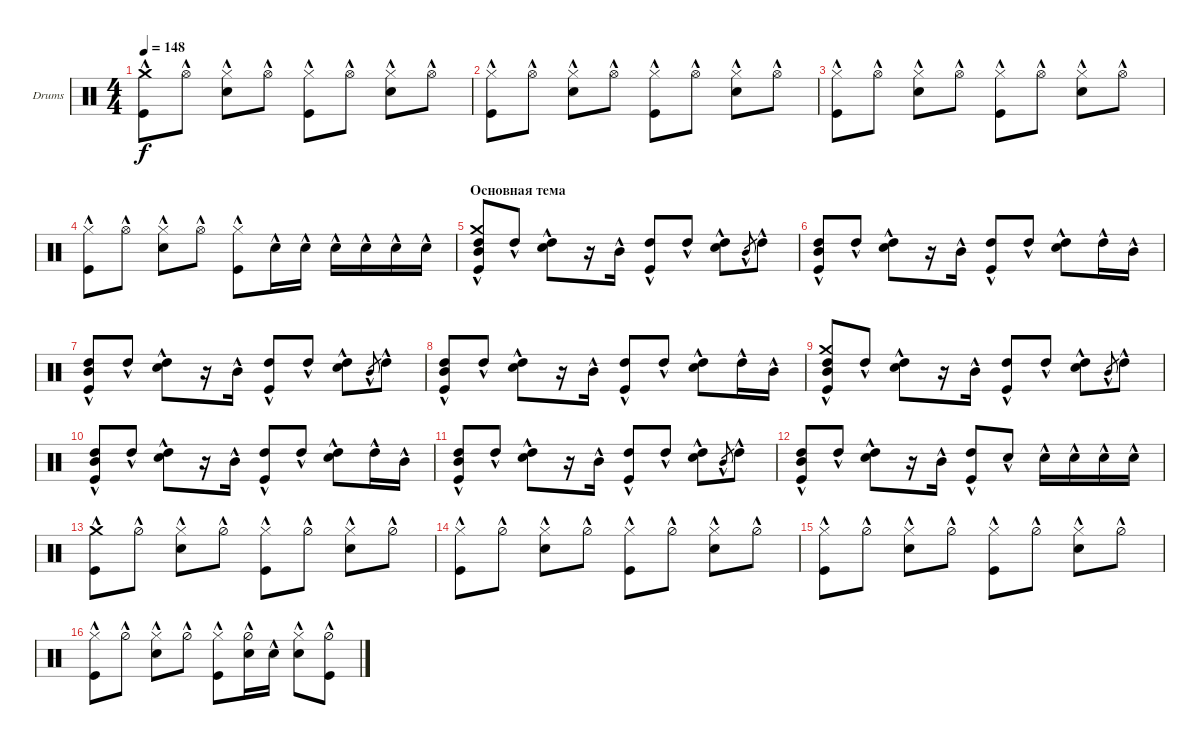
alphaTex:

\bracketExtendMode groupsimilarinstruments
\firstSystemTrackNameOrientation horizontal
\otherSystemsTrackNameOrientation horizontal
\track ("Drumkit" "Drums") {instrument percussion}
\staff {score}
\articulation defaults
\ts (4 4)
\tempo 148
\clef neutral
\ks c
("Kick (hit)"{hac} "Crash medium (hit)"{hac}).8{dy f} "Hi-Hat (open)"{hac}.8 ("Snare (hit) 2"{hac} "Hi-Hat (closed)"{hac}).8 "Hi-Hat (open)"{hac}.8 ("Kick (hit)"{hac} "Hi-Hat (closed)"{hac}).8 "Hi-Hat (open)"{hac}.8 ("Snare (hit) 2"{hac} "Hi-Hat (closed)"{hac}).8 "Hi-Hat (open)"{hac}.8 |
("Kick (hit)"{hac} "Hi-Hat (closed)"{hac}).8 "Hi-Hat (open)"{hac}.8 ("Snare (hit) 2"{hac} "Hi-Hat (closed)"{hac}).8 "Hi-Hat (open)"{hac}.8 ("Kick (hit)"{hac} "Hi-Hat (closed)"{hac}).8 "Hi-Hat (open)"{hac}.8 ("Snare (hit) 2"{hac} "Hi-Hat (closed)"{hac}).8 "Hi-Hat (open)"{hac}.8 |
("Kick (hit)"{hac} "Hi-Hat (closed)"{hac}).8 "Hi-Hat (open)"{hac}.8 ("Snare (hit) 2"{hac} "Hi-Hat (closed)"{hac}).8 "Hi-Hat (open)"{hac}.8 ("Kick (hit)"{hac} "Hi-Hat (closed)"{hac}).8 "Hi-Hat (open)"{hac}.8 ("Snare (hit) 2"{hac} "Hi-Hat (closed)"{hac}).8 "Hi-Hat (open)"{hac}.8 |
("Kick (hit)"{hac} "Hi-Hat (closed)"{hac}).8 "Hi-Hat (open)"{hac}.8 ("Snare (hit) 2"{hac} "Hi-Hat (closed)"{hac}).8 "Hi-Hat (open)"{hac}.8 ("Kick (hit)"{hac} "Hi-Hat (closed)"{hac}).8 "Snare (hit) 2"{hac}.16 "Snare (hit) 2"{hac}.16 "Snare (hit) 2"{hac}.16 "Snare (hit) 2"{hac}.16 "Snare (hit) 2"{hac}.16 "Snare (hit) 2"{hac}.16 |
\section ("" "Основная тема")
("Kick (hit)"{hac} "High Tom (hit)"{hac} "Mid Tom (hit)"{hac} "Crash medium (hit)"{hac}).8 "High Tom (hit)"{hac}.8 ("Snare (hit) 2"{hac} "High Tom (hit)"{hac}).8 r.16 "Mid Tom (hit)"{hac}.16 ("Kick (hit)"{hac} "High Tom (hit)"{hac}).8 "High Tom (hit)"{hac}.8 ("Snare (hit) 2"{hac} "High Tom (hit)"{hac}).8 "Mid Tom (hit)"{hac}.8{gr} "High Tom (hit)"{hac}.8 |
("Kick (hit)"{hac} "High Tom (hit)"{hac} "Mid Tom (hit)"{hac}).8 "High Tom (hit)"{hac}.8 ("Snare (hit) 2"{hac} "High Tom (hit)"{hac}).8 r.16 "Mid Tom (hit)"{hac}.16 ("Kick (hit)"{hac} "High Tom (hit)"{hac}).8 "High Tom (hit)"{hac}.8 ("Snare (hit) 2"{hac} "High Tom (hit)"{hac}).8 "High Tom (hit)"{hac}.16 "Mid Tom (hit)"{hac}.16 |
("Kick (hit)"{hac} "High Tom (hit)"{hac} "Mid Tom (hit)"{hac}).8 "High Tom (hit)"{hac}.8 ("Snare (hit) 2"{hac} "High Tom (hit)"{hac}).8 r.16 "Mid Tom (hit)"{hac}.16 ("Kick (hit)"{hac} "High Tom (hit)"{hac}).8 "High Tom (hit)"{hac}.8 ("Snare (hit) 2"{hac} "High Tom (hit)"{hac}).8 "Mid Tom (hit)"{hac}.8{gr} "High Tom (hit)"{hac}.8 |
("Kick (hit)"{hac} "High Tom (hit)"{hac} "Mid Tom (hit)"{hac}).8 "High Tom (hit)"{hac}.8 ("Snare (hit) 2"{hac} "High Tom (hit)"{hac}).8 r.16 "Mid Tom (hit)"{hac}.16 ("Kick (hit)"{hac} "High Tom (hit)"{hac}).8 "High Tom (hit)"{hac}.8 ("Snare (hit) 2"{hac} "High Tom (hit)"{hac}).8 "High Tom (hit)"{hac}.16 "Mid Tom (hit)"{hac}.16 |
("Kick (hit)"{hac} "High Tom (hit)"{hac} "Mid Tom (hit)"{hac} "Crash medium (hit)"{hac}).8 "High Tom (hit)"{hac}.8 ("Snare (hit) 2"{hac} "High Tom (hit)"{hac}).8 r.16 "Mid Tom (hit)"{hac}.16 ("Kick (hit)"{hac} "High Tom (hit)"{hac}).8 "High Tom (hit)"{hac}.8 ("Snare (hit) 2"{hac} "High Tom (hit)"{hac}).8 "Mid Tom (hit)"{hac}.8{gr} "High Tom (hit)"{hac}.8 |
("Kick (hit)"{hac} "High Tom (hit)"{hac} "Mid Tom (hit)"{hac}).8 "High Tom (hit)"{hac}.8 ("Snare (hit) 2"{hac} "High Tom (hit)"{hac}).8 r.16 "Mid Tom (hit)"{hac}.16 ("Kick (hit)"{hac} "High Tom (hit)"{hac}).8 "High Tom (hit)"{hac}.8 ("Snare (hit) 2"{hac} "High Tom (hit)"{hac}).8 "High Tom (hit)"{hac}.16 "Mid Tom (hit)"{hac}.16 |
("Kick (hit)"{hac} "High Tom (hit)"{hac} "Mid Tom (hit)"{hac}).8 "High Tom (hit)"{hac}.8 ("Snare (hit) 2"{hac} "High Tom (hit)"{hac}).8 r.16 "Mid Tom (hit)"{hac}.16 ("Kick (hit)"{hac} "High Tom (hit)"{hac}).8 "High Tom (hit)"{hac}.8 ("Snare (hit) 2"{hac} "High Tom (hit)"{hac}).8 "Mid Tom (hit)"{hac}.8{gr} "High Tom (hit)"{hac}.8 |
("Kick (hit)"{hac} "High Tom (hit)"{hac} "Mid Tom (hit)"{hac}).8 "High Tom (hit)"{hac}.8 ("Snare (hit) 2"{hac} "High Tom (hit)"{hac}).8 r.16 "Mid Tom (hit)"{hac}.16 ("Kick (hit)"{hac} "High Tom (hit)"{hac}).8 "Snare (hit) 2"{hac}.8 "Snare (hit) 2"{hac}.16 "Snare (hit) 2"{hac}.16 "Snare (hit) 2"{hac}.16 "Snare (hit) 2"{hac}.16 |
("Kick (hit)"{hac} "Crash medium (hit)"{hac}).8 "Hi-Hat (half)"{hac}.8 ("Snare (hit) 2"{hac} "Hi-Hat (closed)"{hac}).8 "Hi-Hat (half)"{hac}.8 ("Kick (hit)"{hac} "Hi-Hat (closed)"{hac}).8 "Hi-Hat (half)"{hac}.8 ("Snare (hit) 2"{hac} "Hi-Hat (closed)"{hac}).8 "Hi-Hat (half)"{hac}.8 |
("Kick (hit)"{hac} "Hi-Hat (closed)"{hac}).8 "Hi-Hat (half)"{hac}.8 ("Snare (hit) 2"{hac} "Hi-Hat (closed)"{hac}).8 "Hi-Hat (half)"{hac}.8 ("Kick (hit)"{hac} "Hi-Hat (closed)"{hac}).8 "Hi-Hat (half)"{hac}.8 ("Snare (hit) 2"{hac} "Hi-Hat (closed)"{hac}).8 "Hi-Hat (half)"{hac}.8 |
("Kick (hit)"{hac} "Hi-Hat (closed)"{hac}).8 "Hi-Hat (half)"{hac}.8 ("Snare (hit) 2"{hac} "Hi-Hat (closed)"{hac}).8 "Hi-Hat (half)"{hac}.8 ("Kick (hit)"{hac} "Hi-Hat (closed)"{hac}).8 "Hi-Hat (half)"{hac}.8 ("Snare (hit) 2"{hac} "Hi-Hat (closed)"{hac}).8 "Hi-Hat (half)"{hac}.8 |
("Kick (hit)"{hac} "Hi-Hat (closed)"{hac}).8 "Hi-Hat (half)"{hac}.8 ("Snare (hit) 2"{hac} "Hi-Hat (closed)"{hac}).8 "Hi-Hat (half)"{hac}.8 ("Kick (hit)"{hac} "Hi-Hat (closed)"{hac}).8 ("Hi-Hat (half)"{hac} "Snare (hit) 2"{hac}).16 "Snare (hit) 2"{hac}.16 ("Snare (hit) 2"{hac} "Hi-Hat (closed)"{hac}).8 ("Hi-Hat (half)"{hac} "Kick (hit)"{hac}).8
